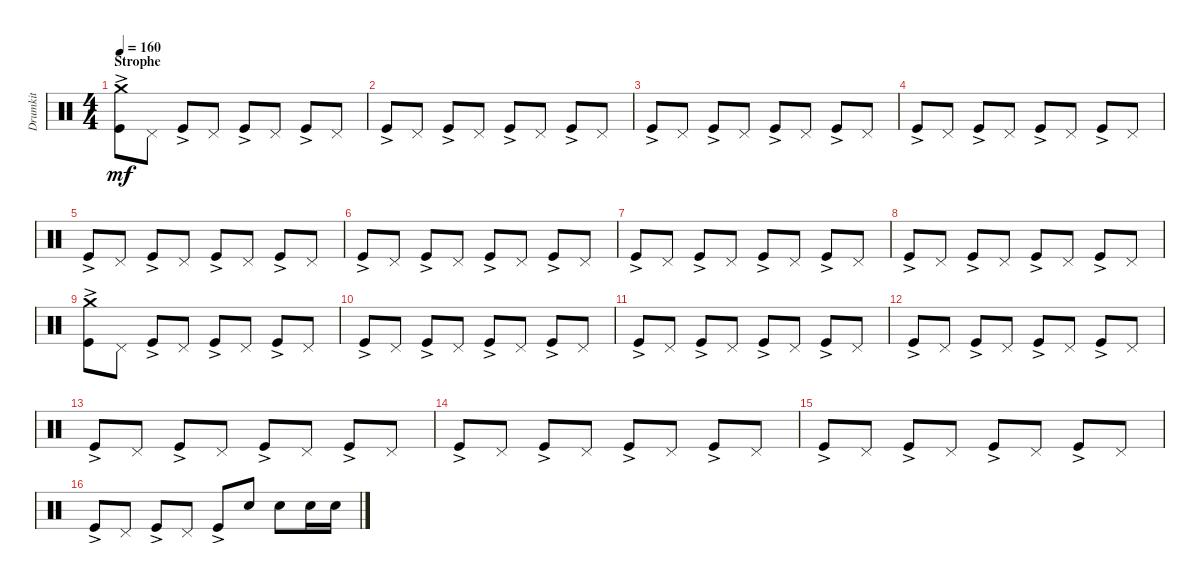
\track ("Drumkit" "Drumkit") {instrument percussion}
\staff {score}
\articulation defaults
\ts (4 4)
\section ("" "Strophe")
\tempo 160
\clef neutral
\ks c
("Kick (hit)"{ac} "Crash medium (hit)").8{dy mf} "Pedal Hi-Hat (hit)".8 "Kick (hit)"{ac}.8 "Pedal Hi-Hat (hit)".8 "Kick (hit)"{ac}.8 "Pedal Hi-Hat (hit)".8 "Kick (hit)"{ac}.8 "Pedal Hi-Hat (hit)".8 |
"Kick (hit)"{ac}.8 "Pedal Hi-Hat (hit)".8 "Kick (hit)"{ac}.8 "Pedal Hi-Hat (hit)".8 "Kick (hit)"{ac}.8 "Pedal Hi-Hat (hit)".8 "Kick (hit)"{ac}.8 "Pedal Hi-Hat (hit)".8 |
"Kick (hit)"{ac}.8 "Pedal Hi-Hat (hit)".8 "Kick (hit)"{ac}.8 "Pedal Hi-Hat (hit)".8 "Kick (hit)"{ac}.8 "Pedal Hi-Hat (hit)".8 "Kick (hit)"{ac}.8 "Pedal Hi-Hat (hit)".8 |
"Kick (hit)"{ac}.8 "Pedal Hi-Hat (hit)".8 "Kick (hit)"{ac}.8 "Pedal Hi-Hat (hit)".8 "Kick (hit)"{ac}.8 "Pedal Hi-Hat (hit)".8 "Kick (hit)"{ac}.8 "Pedal Hi-Hat (hit)".8 |
"Kick (hit)"{ac}.8 "Pedal Hi-Hat (hit)".8 "Kick (hit)"{ac}.8 "Pedal Hi-Hat (hit)".8 "Kick (hit)"{ac}.8 "Pedal Hi-Hat (hit)".8 "Kick (hit)"{ac}.8 "Pedal Hi-Hat (hit)".8 |
"Kick (hit)"{ac}.8 "Pedal Hi-Hat (hit)".8 "Kick (hit)"{ac}.8 "Pedal Hi-Hat (hit)".8 "Kick (hit)"{ac}.8 "Pedal Hi-Hat (hit)".8 "Kick (hit)"{ac}.8 "Pedal Hi-Hat (hit)".8 |
"Kick (hit)"{ac}.8 "Pedal Hi-Hat (hit)".8 "Kick (hit)"{ac}.8 "Pedal Hi-Hat (hit)".8 "Kick (hit)"{ac}.8 "Pedal Hi-Hat (hit)".8 "Kick (hit)"{ac}.8 "Pedal Hi-Hat (hit)".8 |
"Kick (hit)"{ac}.8 "Pedal Hi-Hat (hit)".8 "Kick (hit)"{ac}.8 "Pedal Hi-Hat (hit)".8 "Kick (hit)"{ac}.8 "Pedal Hi-Hat (hit)".8 "Kick (hit)"{ac}.8 "Pedal Hi-Hat (hit)".8 |
("Kick (hit)"{ac} "Crash medium (hit)").8 "Pedal Hi-Hat (hit)".8 "Kick (hit)"{ac}.8 "Pedal Hi-Hat (hit)".8 "Kick (hit)"{ac}.8 "Pedal Hi-Hat (hit)".8 "Kick (hit)"{ac}.8 "Pedal Hi-Hat (hit)".8 |
"Kick (hit)"{ac}.8 "Pedal Hi-Hat (hit)".8 "Kick (hit)"{ac}.8 "Pedal Hi-Hat (hit)".8 "Kick (hit)"{ac}.8 "Pedal Hi-Hat (hit)".8 "Kick (hit)"{ac}.8 "Pedal Hi-Hat (hit)".8 |
"Kick (hit)"{ac}.8 "Pedal Hi-Hat (hit)".8 "Kick (hit)"{ac}.8 "Pedal Hi-Hat (hit)".8 "Kick (hit)"{ac}.8 "Pedal Hi-Hat (hit)".8 "Kick (hit)"{ac}.8 "Pedal Hi-Hat (hit)".8 |
"Kick (hit)"{ac}.8 "Pedal Hi-Hat (hit)".8 "Kick (hit)"{ac}.8 "Pedal Hi-Hat (hit)".8 "Kick (hit)"{ac}.8 "Pedal Hi-Hat (hit)".8 "Kick (hit)"{ac}.8 "Pedal Hi-Hat (hit)".8 |
"Kick (hit)"{ac}.8 "Pedal Hi-Hat (hit)".8 "Kick (hit)"{ac}.8 "Pedal Hi-Hat (hit)".8 "Kick (hit)"{ac}.8 "Pedal Hi-Hat (hit)".8 "Kick (hit)"{ac}.8 "Pedal Hi-Hat (hit)".8 |
"Kick (hit)"{ac}.8 "Pedal Hi-Hat (hit)".8 "Kick (hit)"{ac}.8 "Pedal Hi-Hat (hit)".8 "Kick (hit)"{ac}.8 "Pedal Hi-Hat (hit)".8 "Kick (hit)"{ac}.8 "Pedal Hi-Hat (hit)".8 |
"Kick (hit)"{ac}.8 "Pedal Hi-Hat (hit)".8 "Kick (hit)"{ac}.8 "Pedal Hi-Hat (hit)".8 "Kick (hit)"{ac}.8 "Pedal Hi-Hat (hit)".8 "Kick (hit)"{ac}.8 "Pedal Hi-Hat (hit)".8 |
"Kick (hit)"{ac}.8 "Pedal Hi-Hat (hit)".8 "Kick (hit)"{ac}.8 "Pedal Hi-Hat (hit)".8 "Kick (hit)"{ac}.8 "Snare (hit) 2".8 "Snare (hit) 2".8 "Snare (hit) 2".16 "Snare (hit) 2".16
